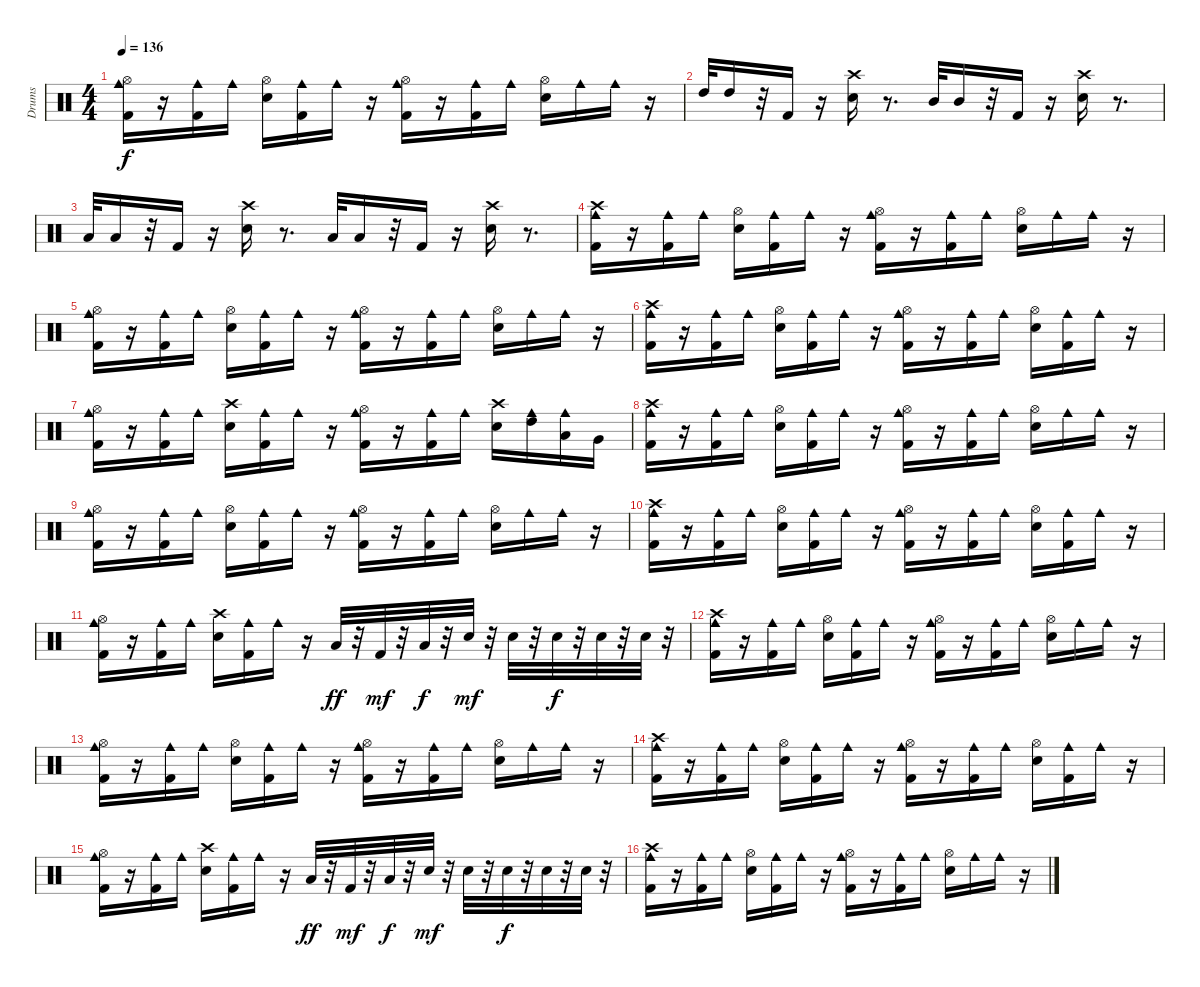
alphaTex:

\track ("Drums" "Drums") {instrument percussion}
\staff {score}
\articulation defaults
\ts (4 4)
\tempo 136
\clef neutral
\ks c
("Kick (hit) 2" "Cowbell medium (hit)" "Hi-Hat (open)").16{dy f} r.16 ("Kick (hit) 2" "Cowbell medium (hit)").16 "Cowbell medium (hit)".16 ("Metronome (bell)" "Hi-Hat (open)").16 ("Cowbell medium (hit)" "Kick (hit) 2").16 "Cowbell medium (hit)".16 r.16 ("Kick (hit) 2" "Cowbell medium (hit)" "Hi-Hat (open)").16 r.16 ("Kick (hit) 2" "Cowbell medium (hit)").16 "Cowbell medium (hit)".16 ("Metronome (bell)" "Hi-Hat (open)").16 "Cowbell medium (hit)".16 "Cowbell medium (hit)".16 r.16 |
"High Tom (hit)".32 "High Tom (hit)".16 r.32 "Kick (hit) 2".16 r.16 ("Metronome (bell)" "Crash high (hit)").16 r.8{d} "Mid Tom (hit)".32 "Mid Tom (hit)".16 r.32 "Kick (hit) 2".16 r.16 ("Metronome (bell)" "Crash high (hit)").16 r.8{d} |
"Low Tom (hit)".32 "Low Tom (hit)".16 r.32 "Kick (hit) 2".16 r.16 ("Metronome (bell)" "Crash high (hit)").16 r.8{d} "Low Floor Tom (hit)".32 "Low Floor Tom (hit)".16 r.32 "Kick (hit) 2".16 r.16 ("Metronome (bell)" "Crash high (hit)").16 r.8{d} |
("Cowbell medium (hit)" "Kick (hit) 2" "Crash high (hit)").16 r.16 ("Cowbell medium (hit)" "Kick (hit) 2").16 "Cowbell medium (hit)".16 ("Metronome (bell)" "Hi-Hat (open)").16 ("Cowbell medium (hit)" "Kick (hit) 2").16 "Cowbell medium (hit)".16 r.16 ("Kick (hit) 2" "Cowbell medium (hit)" "Hi-Hat (open)").16 r.16 ("Cowbell medium (hit)" "Kick (hit) 2").16 "Cowbell medium (hit)".16 ("Metronome (bell)" "Hi-Hat (open)").16 "Cowbell medium (hit)".16 "Cowbell medium (hit)".16 r.16 |
("Kick (hit) 2" "Cowbell medium (hit)" "Hi-Hat (open)").16 r.16 ("Kick (hit) 2" "Cowbell medium (hit)").16 "Cowbell medium (hit)".16 ("Metronome (bell)" "Hi-Hat (open)").16 ("Cowbell medium (hit)" "Kick (hit) 2").16 "Cowbell medium (hit)".16 r.16 ("Kick (hit) 2" "Cowbell medium (hit)" "Hi-Hat (open)").16 r.16 ("Kick (hit) 2" "Cowbell medium (hit)").16 "Cowbell medium (hit)".16 ("Metronome (bell)" "Hi-Hat (open)").16 "Cowbell medium (hit)".16 "Cowbell medium (hit)".16 r.16 |
("Cowbell medium (hit)" "Kick (hit) 2" "Crash high (hit)").16 r.16 ("Cowbell medium (hit)" "Kick (hit) 2").16 "Cowbell medium (hit)".16 ("Metronome (bell)" "Hi-Hat (open)").16 ("Cowbell medium (hit)" "Kick (hit) 2").16 "Cowbell medium (hit)".16 r.16 ("Kick (hit) 2" "Cowbell medium (hit)" "Hi-Hat (open)").16 r.16 ("Cowbell medium (hit)" "Kick (hit) 2").16 "Cowbell medium (hit)".16 ("Metronome (bell)" "Hi-Hat (open)").16 ("Cowbell medium (hit)" "Kick (hit) 2").16 "Cowbell medium (hit)".16 r.16 |
("Kick (hit) 2" "Cowbell medium (hit)" "Hi-Hat (open)").16 r.16 ("Kick (hit) 2" "Cowbell medium (hit)").16 "Cowbell medium (hit)".16 ("Metronome (bell)" "Crash high (hit)").16 ("Cowbell medium (hit)" "Kick (hit) 2").16 "Cowbell medium (hit)".16 r.16 ("Kick (hit) 2" "Cowbell medium (hit)" "Hi-Hat (open)").16 r.16 ("Kick (hit) 2" "Cowbell medium (hit)").16 "Cowbell medium (hit)".16 ("Metronome (bell)" "Crash high (hit)").16 ("Cowbell medium (hit)" "High Tom (hit)").16 ("Cowbell medium (hit)" "Low Tom (hit)").16 "Very Low Tom (hit)".16 |
("Cowbell medium (hit)" "Kick (hit) 2" "Crash high (hit)").16 r.16 ("Cowbell medium (hit)" "Kick (hit) 2").16 "Cowbell medium (hit)".16 ("Metronome (bell)" "Hi-Hat (open)").16 ("Cowbell medium (hit)" "Kick (hit) 2").16 "Cowbell medium (hit)".16 r.16 ("Kick (hit) 2" "Cowbell medium (hit)" "Hi-Hat (open)").16 r.16 ("Cowbell medium (hit)" "Kick (hit) 2").16 "Cowbell medium (hit)".16 ("Metronome (bell)" "Hi-Hat (open)").16 "Cowbell medium (hit)".16 "Cowbell medium (hit)".16 r.16 |
("Kick (hit) 2" "Cowbell medium (hit)" "Hi-Hat (open)").16 r.16 ("Kick (hit) 2" "Cowbell medium (hit)").16 "Cowbell medium (hit)".16 ("Metronome (bell)" "Hi-Hat (open)").16 ("Cowbell medium (hit)" "Kick (hit) 2").16 "Cowbell medium (hit)".16 r.16 ("Kick (hit) 2" "Cowbell medium (hit)" "Hi-Hat (open)").16 r.16 ("Kick (hit) 2" "Cowbell medium (hit)").16 "Cowbell medium (hit)".16 ("Metronome (bell)" "Hi-Hat (open)").16 "Cowbell medium (hit)".16 "Cowbell medium (hit)".16 r.16 |
("Cowbell medium (hit)" "Kick (hit) 2" "Crash high (hit)").16 r.16 ("Cowbell medium (hit)" "Kick (hit) 2").16 "Cowbell medium (hit)".16 ("Metronome (bell)" "Hi-Hat (open)").16 ("Cowbell medium (hit)" "Kick (hit) 2").16 "Cowbell medium (hit)".16 r.16 ("Kick (hit) 2" "Cowbell medium (hit)" "Hi-Hat (open)").16 r.16 ("Cowbell medium (hit)" "Kick (hit) 2").16 "Cowbell medium (hit)".16 ("Metronome (bell)" "Hi-Hat (open)").16 ("Cowbell medium (hit)" "Kick (hit) 2").16 "Cowbell medium (hit)".16 r.16 |
("Kick (hit) 2" "Cowbell medium (hit)" "Hi-Hat (open)").16 r.16 ("Kick (hit) 2" "Cowbell medium (hit)").16 "Cowbell medium (hit)".16 ("Metronome (bell)" "Crash high (hit)").16 ("Cowbell medium (hit)" "Kick (hit) 2").16 "Cowbell medium (hit)".16 r.16 "Low Tom (hit)".32{dy ff} r.32 "Kick (hit) 2".32{dy mf} r.32 "Low Floor Tom (hit)".32{dy f} r.32 "Metronome (bell)".32{dy mf} r.32 "Metronome (bell)".32 r.32 "Metronome (bell)".32{dy f} r.32 "Metronome (bell)".32 r.32 "Metronome (bell)".32 r.32 |
("Cowbell medium (hit)" "Kick (hit) 2" "Crash high (hit)").16 r.16 ("Cowbell medium (hit)" "Kick (hit) 2").16 "Cowbell medium (hit)".16 ("Metronome (bell)" "Hi-Hat (open)").16 ("Cowbell medium (hit)" "Kick (hit) 2").16 "Cowbell medium (hit)".16 r.16 ("Kick (hit) 2" "Cowbell medium (hit)" "Hi-Hat (open)").16 r.16 ("Cowbell medium (hit)" "Kick (hit) 2").16 "Cowbell medium (hit)".16 ("Metronome (bell)" "Hi-Hat (open)").16 "Cowbell medium (hit)".16 "Cowbell medium (hit)".16 r.16 |
("Kick (hit) 2" "Cowbell medium (hit)" "Hi-Hat (open)").16 r.16 ("Kick (hit) 2" "Cowbell medium (hit)").16 "Cowbell medium (hit)".16 ("Metronome (bell)" "Hi-Hat (open)").16 ("Cowbell medium (hit)" "Kick (hit) 2").16 "Cowbell medium (hit)".16 r.16 ("Kick (hit) 2" "Cowbell medium (hit)" "Hi-Hat (open)").16 r.16 ("Kick (hit) 2" "Cowbell medium (hit)").16 "Cowbell medium (hit)".16 ("Metronome (bell)" "Hi-Hat (open)").16 "Cowbell medium (hit)".16 "Cowbell medium (hit)".16 r.16 |
("Cowbell medium (hit)" "Kick (hit) 2" "Crash high (hit)").16 r.16 ("Cowbell medium (hit)" "Kick (hit) 2").16 "Cowbell medium (hit)".16 ("Metronome (bell)" "Hi-Hat (open)").16 ("Cowbell medium (hit)" "Kick (hit) 2").16 "Cowbell medium (hit)".16 r.16 ("Kick (hit) 2" "Cowbell medium (hit)" "Hi-Hat (open)").16 r.16 ("Cowbell medium (hit)" "Kick (hit) 2").16 "Cowbell medium (hit)".16 ("Metronome (bell)" "Hi-Hat (open)").16 ("Cowbell medium (hit)" "Kick (hit) 2").16 "Cowbell medium (hit)".16 r.16 |
("Kick (hit) 2" "Cowbell medium (hit)" "Hi-Hat (open)").16 r.16 ("Kick (hit) 2" "Cowbell medium (hit)").16 "Cowbell medium (hit)".16 ("Metronome (bell)" "Crash high (hit)").16 ("Cowbell medium (hit)" "Kick (hit) 2").16 "Cowbell medium (hit)".16 r.16 "Low Tom (hit)".32{dy ff} r.32 "Kick (hit) 2".32{dy mf} r.32 "Low Floor Tom (hit)".32{dy f} r.32 "Metronome (bell)".32{dy mf} r.32 "Metronome (bell)".32 r.32 "Metronome (bell)".32{dy f} r.32 "Metronome (bell)".32 r.32 "Metronome (bell)".32 r.32 |
("Cowbell medium (hit)" "Kick (hit) 2" "Crash high (hit)").16 r.16 ("Cowbell medium (hit)" "Kick (hit) 2").16 "Cowbell medium (hit)".16 ("Metronome (bell)" "Hi-Hat (open)").16 ("Cowbell medium (hit)" "Kick (hit) 2").16 "Cowbell medium (hit)".16 r.16 ("Kick (hit) 2" "Cowbell medium (hit)" "Hi-Hat (open)").16 r.16 ("Cowbell medium (hit)" "Kick (hit) 2").16 "Cowbell medium (hit)".16 ("Metronome (bell)" "Hi-Hat (open)").16 "Cowbell medium (hit)".16 "Cowbell medium (hit)".16 r.16
